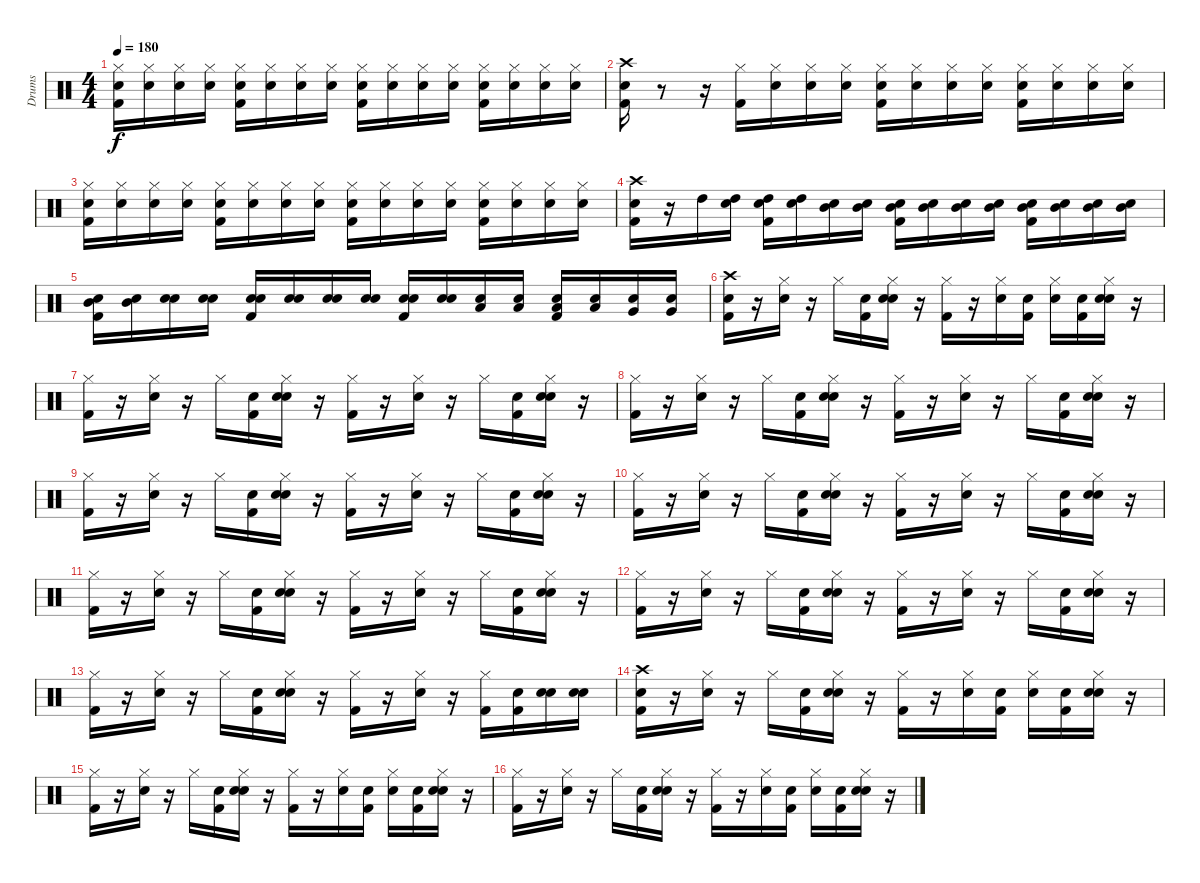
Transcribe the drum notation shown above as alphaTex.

\track ("Drums" "Drums") {instrument percussion}
\staff {score}
\articulation defaults
\ts (4 4)
\tempo 180
\clef neutral
\ks c
("Snare (hit)" "Kick (hit) 2" "Hi-Hat (closed)").16{dy f} ("Snare (hit)" "Hi-Hat (closed)").16 ("Snare (hit)" "Hi-Hat (closed)").16 ("Snare (hit)" "Hi-Hat (closed)").16 ("Snare (hit)" "Kick (hit) 2" "Hi-Hat (closed)").16 ("Snare (hit)" "Hi-Hat (closed)").16 ("Snare (hit)" "Hi-Hat (closed)").16 ("Snare (hit)" "Hi-Hat (closed)").16 ("Snare (hit)" "Kick (hit) 2" "Hi-Hat (closed)").16 ("Snare (hit)" "Hi-Hat (closed)").16 ("Snare (hit)" "Hi-Hat (closed)").16 ("Snare (hit)" "Hi-Hat (closed)").16 ("Snare (hit)" "Kick (hit) 2" "Hi-Hat (closed)").16 ("Snare (hit)" "Hi-Hat (closed)").16 ("Snare (hit)" "Hi-Hat (closed)").16 ("Snare (hit)" "Hi-Hat (closed)").16 |
("Snare (hit)" "Crash high (hit)" "Kick (hit) 2").16 r.8 r.16 ("Hi-Hat (closed)" "Kick (hit) 2").16 ("Snare (hit)" "Hi-Hat (closed)").16 ("Snare (hit)" "Hi-Hat (closed)").16 ("Snare (hit)" "Hi-Hat (closed)").16 ("Snare (hit)" "Hi-Hat (closed)" "Kick (hit) 2").16 ("Snare (hit)" "Hi-Hat (closed)").16 ("Snare (hit)" "Hi-Hat (closed)").16 ("Snare (hit)" "Hi-Hat (closed)").16 ("Snare (hit)" "Hi-Hat (closed)" "Kick (hit) 2").16 ("Snare (hit)" "Hi-Hat (closed)").16 ("Snare (hit)" "Hi-Hat (closed)").16 ("Snare (hit)" "Hi-Hat (closed)").16 |
("Snare (hit)" "Kick (hit) 2" "Hi-Hat (closed)").16 ("Snare (hit)" "Hi-Hat (closed)").16 ("Snare (hit)" "Hi-Hat (closed)").16 ("Snare (hit)" "Hi-Hat (closed)").16 ("Snare (hit)" "Kick (hit) 2" "Hi-Hat (closed)").16 ("Snare (hit)" "Hi-Hat (closed)").16 ("Snare (hit)" "Hi-Hat (closed)").16 ("Snare (hit)" "Hi-Hat (closed)").16 ("Snare (hit)" "Kick (hit) 2" "Hi-Hat (closed)").16 ("Snare (hit)" "Hi-Hat (closed)").16 ("Snare (hit)" "Hi-Hat (closed)").16 ("Snare (hit)" "Hi-Hat (closed)").16 ("Snare (hit)" "Kick (hit) 2" "Hi-Hat (closed)").16 ("Snare (hit)" "Hi-Hat (closed)").16 ("Snare (hit)" "Hi-Hat (closed)").16 ("Snare (hit)" "Hi-Hat (closed)").16 |
("Snare (hit)" "Crash high (hit)" "Kick (hit) 2").16 r.16 "High Tom (hit)".16 ("Snare (hit)" "High Tom (hit)").16 ("Snare (hit)" "High Tom (hit)" "Kick (hit) 2").16 ("Snare (hit)" "High Tom (hit)").16 ("Snare (hit)" "Mid Tom (hit)").16 ("Snare (hit)" "Mid Tom (hit)").16 ("Snare (hit)" "Mid Tom (hit)" "Kick (hit) 2").16 ("Snare (hit)" "Mid Tom (hit)").16 ("Snare (hit)" "Mid Tom (hit)").16 ("Snare (hit)" "Mid Tom (hit)").16 ("Snare (hit)" "Mid Tom (hit)" "Kick (hit) 2").16 ("Snare (hit)" "Mid Tom (hit)").16 ("Snare (hit)" "Mid Tom (hit)").16 ("Snare (hit)" "Mid Tom (hit)").16 |
("Snare (hit)" "Mid Tom (hit)" "Kick (hit) 2").16 ("Snare (hit)" "Mid Tom (hit)").16 ("Snare (hit)" "Snare (hit) 2").16 ("Snare (hit)" "Snare (hit) 2").16 ("Snare (hit)" "Snare (hit) 2" "Kick (hit) 2").16 ("Snare (hit)" "Snare (hit) 2").16 ("Snare (hit)" "Snare (hit) 2").16 ("Snare (hit)" "Snare (hit) 2").16 ("Snare (hit)" "Snare (hit) 2" "Kick (hit) 2").16 ("Snare (hit)" "Snare (hit) 2").16 ("Snare (hit)" "Low Tom (hit)").16 ("Snare (hit)" "Low Tom (hit)").16 ("Snare (hit)" "Low Tom (hit)" "Kick (hit) 2").16 ("Snare (hit)" "Low Tom (hit)").16 ("Snare (hit)" "Very Low Tom (hit)").16 ("Snare (hit)" "Very Low Tom (hit)").16 |
("Snare (hit)" "Kick (hit) 2" "Crash high (hit)").16 r.16 ("Snare (hit) 2" "Hi-Hat (closed)").16 r.16 "Hi-Hat (closed)".16 ("Snare (hit)" "Kick (hit) 2").16 ("Snare (hit)" "Snare (hit) 2" "Hi-Hat (closed)").16 r.16 ("Kick (hit) 2" "Hi-Hat (closed)").16 r.16 ("Snare (hit) 2" "Hi-Hat (closed)").16 ("Snare (hit)" "Kick (hit) 2").16 ("Snare (hit)" "Hi-Hat (closed)").16 ("Snare (hit)" "Kick (hit) 2").16 ("Snare (hit)" "Snare (hit) 2" "Hi-Hat (closed)").16 r.16 |
("Kick (hit) 2" "Hi-Hat (closed)").16 r.16 ("Snare (hit) 2" "Hi-Hat (closed)").16 r.16 "Hi-Hat (closed)".16 ("Snare (hit)" "Kick (hit) 2").16 ("Snare (hit)" "Snare (hit) 2" "Hi-Hat (closed)").16 r.16 ("Kick (hit) 2" "Hi-Hat (closed)").16 r.16 ("Snare (hit) 2" "Hi-Hat (closed)").16 r.16 "Hi-Hat (closed)".16 ("Snare (hit)" "Kick (hit) 2").16 ("Snare (hit)" "Snare (hit) 2" "Hi-Hat (closed)").16 r.16 |
("Kick (hit) 2" "Hi-Hat (closed)").16 r.16 ("Snare (hit) 2" "Hi-Hat (closed)").16 r.16 "Hi-Hat (closed)".16 ("Snare (hit)" "Kick (hit) 2").16 ("Snare (hit)" "Snare (hit) 2" "Hi-Hat (closed)").16 r.16 ("Kick (hit) 2" "Hi-Hat (closed)").16 r.16 ("Snare (hit) 2" "Hi-Hat (closed)").16 r.16 "Hi-Hat (closed)".16 ("Snare (hit)" "Kick (hit) 2").16 ("Snare (hit)" "Snare (hit) 2" "Hi-Hat (closed)").16 r.16 |
("Kick (hit) 2" "Hi-Hat (closed)").16 r.16 ("Snare (hit) 2" "Hi-Hat (closed)").16 r.16 "Hi-Hat (closed)".16 ("Snare (hit)" "Kick (hit) 2").16 ("Snare (hit)" "Snare (hit) 2" "Hi-Hat (closed)").16 r.16 ("Kick (hit) 2" "Hi-Hat (closed)").16 r.16 ("Snare (hit) 2" "Hi-Hat (closed)").16 r.16 "Hi-Hat (closed)".16 ("Snare (hit)" "Kick (hit) 2").16 ("Snare (hit)" "Snare (hit) 2" "Hi-Hat (closed)").16 r.16 |
("Kick (hit) 2" "Hi-Hat (closed)").16 r.16 ("Snare (hit) 2" "Hi-Hat (closed)").16 r.16 "Hi-Hat (closed)".16 ("Snare (hit)" "Kick (hit) 2").16 ("Snare (hit)" "Snare (hit) 2" "Hi-Hat (closed)").16 r.16 ("Kick (hit) 2" "Hi-Hat (closed)").16 r.16 ("Snare (hit) 2" "Hi-Hat (closed)").16 r.16 "Hi-Hat (closed)".16 ("Snare (hit)" "Kick (hit) 2").16 ("Snare (hit)" "Snare (hit) 2" "Hi-Hat (closed)").16 r.16 |
("Kick (hit) 2" "Hi-Hat (closed)").16 r.16 ("Snare (hit) 2" "Hi-Hat (closed)").16 r.16 "Hi-Hat (closed)".16 ("Snare (hit)" "Kick (hit) 2").16 ("Snare (hit)" "Snare (hit) 2" "Hi-Hat (closed)").16 r.16 ("Kick (hit) 2" "Hi-Hat (closed)").16 r.16 ("Snare (hit) 2" "Hi-Hat (closed)").16 r.16 "Hi-Hat (closed)".16 ("Snare (hit)" "Kick (hit) 2").16 ("Snare (hit)" "Snare (hit) 2" "Hi-Hat (closed)").16 r.16 |
("Kick (hit) 2" "Hi-Hat (closed)").16 r.16 ("Snare (hit) 2" "Hi-Hat (closed)").16 r.16 "Hi-Hat (closed)".16 ("Snare (hit)" "Kick (hit) 2").16 ("Snare (hit)" "Snare (hit) 2" "Hi-Hat (closed)").16 r.16 ("Kick (hit) 2" "Hi-Hat (closed)").16 r.16 ("Snare (hit) 2" "Hi-Hat (closed)").16 r.16 "Hi-Hat (closed)".16 ("Snare (hit)" "Kick (hit) 2").16 ("Snare (hit)" "Snare (hit) 2" "Hi-Hat (closed)").16 r.16 |
("Kick (hit) 2" "Hi-Hat (closed)").16 r.16 ("Snare (hit) 2" "Hi-Hat (closed)").16 r.16 "Hi-Hat (closed)".16 ("Snare (hit)" "Kick (hit) 2").16 ("Snare (hit)" "Snare (hit) 2" "Hi-Hat (closed)").16 r.16 ("Kick (hit) 2" "Hi-Hat (closed)").16 r.16 ("Snare (hit) 2" "Hi-Hat (closed)").16 r.16 ("Kick (hit) 2" "Hi-Hat (closed)").16 ("Snare (hit)" "Kick (hit) 2").16 ("Snare (hit)" "Snare (hit) 2").16 ("Snare (hit)" "Snare (hit) 2").16 |
("Snare (hit)" "Kick (hit) 2" "Crash high (hit)").16 r.16 ("Snare (hit) 2" "Hi-Hat (closed)").16 r.16 "Hi-Hat (closed)".16 ("Snare (hit)" "Kick (hit) 2").16 ("Snare (hit)" "Snare (hit) 2" "Hi-Hat (closed)").16 r.16 ("Kick (hit) 2" "Hi-Hat (closed)").16 r.16 ("Hi-Hat (closed)" "Snare (hit) 2").16 ("Snare (hit)" "Kick (hit) 2").16 ("Snare (hit)" "Hi-Hat (closed)").16 ("Snare (hit)" "Kick (hit) 2").16 ("Snare (hit)" "Snare (hit) 2" "Hi-Hat (closed)").16 r.16 |
("Kick (hit) 2" "Hi-Hat (closed)").16 r.16 ("Snare (hit) 2" "Hi-Hat (closed)").16 r.16 "Hi-Hat (closed)".16 ("Snare (hit)" "Kick (hit) 2").16 ("Snare (hit)" "Snare (hit) 2" "Hi-Hat (closed)").16 r.16 ("Kick (hit) 2" "Hi-Hat (closed)").16 r.16 ("Snare (hit) 2" "Hi-Hat (closed)").16 ("Snare (hit)" "Kick (hit) 2").16 ("Snare (hit)" "Hi-Hat (closed)").16 ("Snare (hit)" "Kick (hit) 2").16 ("Snare (hit)" "Snare (hit) 2" "Hi-Hat (closed)").16 r.16 |
("Kick (hit) 2" "Hi-Hat (closed)").16 r.16 ("Snare (hit) 2" "Hi-Hat (closed)").16 r.16 "Hi-Hat (closed)".16 ("Snare (hit)" "Kick (hit) 2").16 ("Snare (hit)" "Snare (hit) 2" "Hi-Hat (closed)").16 r.16 ("Kick (hit) 2" "Hi-Hat (closed)").16 r.16 ("Snare (hit) 2" "Hi-Hat (closed)").16 ("Snare (hit)" "Kick (hit) 2").16 ("Snare (hit)" "Hi-Hat (closed)").16 ("Snare (hit)" "Kick (hit) 2").16 ("Snare (hit)" "Snare (hit) 2" "Hi-Hat (closed)").16 r.16
